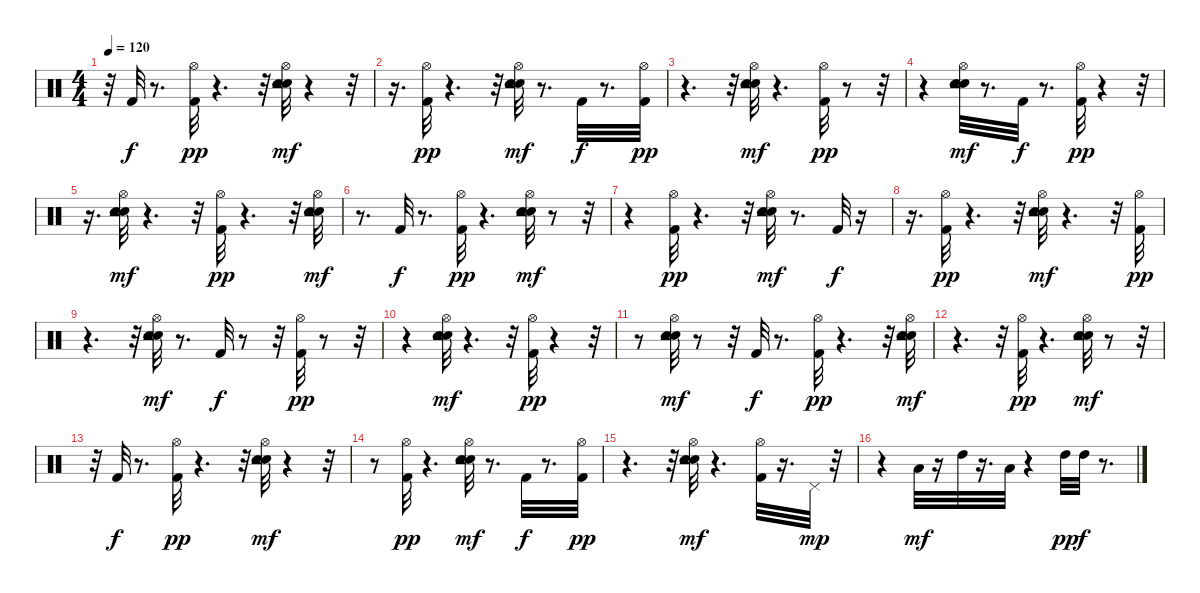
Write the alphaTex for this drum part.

\track "" {instrument percussion}
\staff {score}
\articulation defaults
\ts (4 4)
\tempo 120
\clef neutral
\ks c
r.32{dy mf} "Kick (hit) 2".32{dy f} r.8{d} ("Kick (hit) 2" "Hi-Hat (open)").32{dy pp} r.4{d} r.32 ("Snare (hit) 2" "Electric Snare (hit)" "Hi-Hat (open)" "Tambourine (hit)").32{dy mf} r.4 r.32 |
r.16{d} ("Kick (hit) 2" "Hi-Hat (open)").32{dy pp} r.4{d} r.32 ("Snare (hit) 2" "Electric Snare (hit)" "Hi-Hat (open)" "Tambourine (hit)").32{dy mf} r.8{d} "Kick (hit) 2".32{dy f} r.8{d} ("Kick (hit) 2" "Hi-Hat (open)").32{dy pp} |
r.4{d} r.32 ("Snare (hit) 2" "Electric Snare (hit)" "Hi-Hat (open)" "Tambourine (hit)").32{dy mf} r.4{d} ("Kick (hit) 2" "Hi-Hat (open)").32{dy pp} r.8 r.32 |
r.4 ("Snare (hit) 2" "Electric Snare (hit)" "Hi-Hat (open)" "Tambourine (hit)").32{dy mf} r.8{d} "Kick (hit) 2".32{dy f} r.8{d} ("Kick (hit) 2" "Hi-Hat (open)").32{dy pp} r.4 r.32 |
r.16{d} ("Snare (hit) 2" "Electric Snare (hit)" "Hi-Hat (open)" "Tambourine (hit)").32{dy mf} r.4{d} r.32 ("Kick (hit) 2" "Hi-Hat (open)").32{dy pp} r.4{d} r.32 ("Snare (hit) 2" "Electric Snare (hit)" "Hi-Hat (open)" "Tambourine (hit)").32{dy mf} |
r.8{d} "Kick (hit) 2".32{dy f} r.8{d} ("Kick (hit) 2" "Hi-Hat (open)").32{dy pp} r.4{d} ("Snare (hit) 2" "Electric Snare (hit)" "Hi-Hat (open)" "Tambourine (hit)").32{dy mf} r.8 r.32 |
r.4 ("Kick (hit) 2" "Hi-Hat (open)").32{dy pp} r.4{d} r.32 ("Snare (hit) 2" "Electric Snare (hit)" "Hi-Hat (open)" "Tambourine (hit)").32{dy mf} r.8{d} "Kick (hit) 2".32{dy f} r.16 |
r.16{d} ("Kick (hit) 2" "Hi-Hat (open)").32{dy pp} r.4{d} r.32 ("Snare (hit) 2" "Electric Snare (hit)" "Hi-Hat (open)" "Tambourine (hit)").32{dy mf} r.4{d} r.32 ("Kick (hit) 2" "Hi-Hat (open)").32{dy pp} |
r.4{d} r.32 ("Snare (hit) 2" "Electric Snare (hit)" "Hi-Hat (open)" "Tambourine (hit)").32{dy mf} r.8{d} "Kick (hit) 2".32{dy f} r.8 r.32 ("Kick (hit) 2" "Hi-Hat (open)").32{dy pp} r.8 r.32 |
r.4 ("Snare (hit) 2" "Electric Snare (hit)" "Hi-Hat (open)" "Tambourine (hit)").32{dy mf} r.4{d} r.32 ("Kick (hit) 2" "Hi-Hat (open)").32{dy pp} r.4 r.32 |
r.8 ("Snare (hit) 2" "Electric Snare (hit)" "Hi-Hat (open)" "Tambourine (hit)").32{dy mf} r.8 r.32 "Kick (hit) 2".32{dy f} r.8{d} ("Kick (hit) 2" "Hi-Hat (open)").32{dy pp} r.4{d} r.32 ("Snare (hit) 2" "Electric Snare (hit)" "Hi-Hat (open)" "Tambourine (hit)").32{dy mf} |
r.4{d} r.32 ("Kick (hit) 2" "Hi-Hat (open)").32{dy pp} r.4{d} ("Snare (hit) 2" "Electric Snare (hit)" "Hi-Hat (open)" "Tambourine (hit)").32{dy mf} r.8 r.32 |
r.32 "Kick (hit) 2".32{dy f} r.8{d} ("Kick (hit) 2" "Hi-Hat (open)").32{dy pp} r.4{d} r.32 ("Snare (hit) 2" "Electric Snare (hit)" "Hi-Hat (open)" "Tambourine (hit)").32{dy mf} r.4 r.32 |
r.8 ("Kick (hit) 2" "Hi-Hat (open)").32{dy pp} r.4{d} ("Snare (hit) 2" "Electric Snare (hit)" "Hi-Hat (open)" "Tambourine (hit)").32{dy mf} r.8{d} "Kick (hit) 2".32{dy f} r.8{d} ("Kick (hit) 2" "Hi-Hat (open)").32{dy pp} |
r.4{d} r.32 ("Snare (hit) 2" "Electric Snare (hit)" "Hi-Hat (open)" "Tambourine (hit)").32{dy mf} r.4{d} ("Kick (hit) 2" "Hi-Hat (open)").32 r.16{d} "Pedal Hi-Hat (hit)".32{dy mp} r.32 |
r.4 "Low Floor Tom (hit)".32{dy mf} r.16 "High Tom (hit)".32 r.16{d} "Low Tom (hit)".32 r.4 "High Tom (hit)".32{dy pp} "High Tom (hit)".32{dy f} r.8{d}
